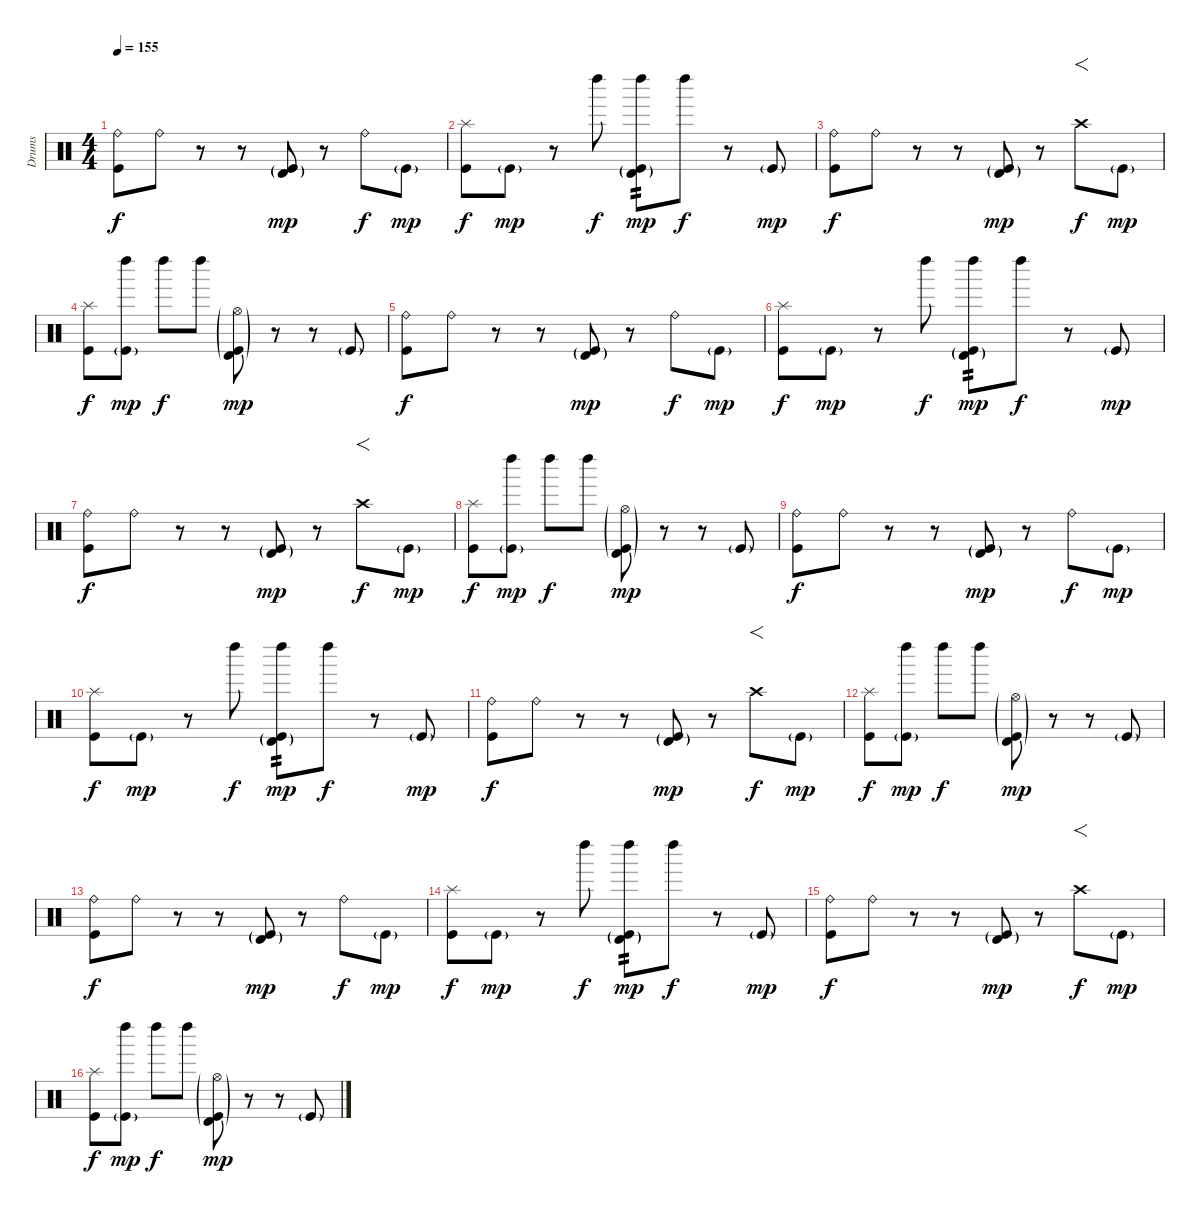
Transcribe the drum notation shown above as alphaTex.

\track ("Drums" "Drums") {instrument percussion}
\staff {score}
\articulation defaults
\ts (4 4)
\tempo 155
\clef neutral
\ks c
("Kick (hit)" "Ride (bell)").8{dy f} "Ride (bell)".8 r.8 r.8 ("Timbale high (hit)"{g} "Kick (hit)"{g}).8{dy mp} r.8 "Ride (bell)".8{dy f} "Kick (hit)"{g}.8{dy mp} |
("Kick (hit)" "Splash (hit)").8{dy f} "Kick (hit)"{g}.8{dy mp} r.8 "Left Maraca (hit)".8{dy f} ("Timbale high (hit)"{g} "Kick (hit)"{g} "Left Maraca (hit)").8{tp 2 dy mp} "Left Maraca (hit)".8{dy f} r.8 "Kick (hit)"{g}.8{dy mp} |
("Kick (hit)" "Ride (bell)").8{dy f} "Ride (bell)".8 r.8 r.8 ("Timbale high (hit)"{g} "Kick (hit)"{g}).8{dy mp} r.8 "Crash high (hit)".8{f dy f} "Kick (hit)"{g}.8{dy mp} |
("Kick (hit)" "Splash (hit)").8{dy f} ("Kick (hit)"{g} "Left Maraca (hit)").8{dy mp} "Left Maraca (hit)".8{dy f} "Left Maraca (hit)".8 ("Timbale high (hit)"{g} "Kick (hit)"{g} "Hi-Hat (open)"{g}).8{dy mp} r.8 r.8 "Kick (hit)"{g}.8 |
("Kick (hit)" "Ride (bell)").8{dy f} "Ride (bell)".8 r.8 r.8 ("Timbale high (hit)"{g} "Kick (hit)"{g}).8{dy mp} r.8 "Ride (bell)".8{dy f} "Kick (hit)"{g}.8{dy mp} |
("Kick (hit)" "Splash (hit)").8{dy f} "Kick (hit)"{g}.8{dy mp} r.8 "Left Maraca (hit)".8{dy f} ("Timbale high (hit)"{g} "Kick (hit)"{g} "Left Maraca (hit)").8{tp 2 dy mp} "Left Maraca (hit)".8{dy f} r.8 "Kick (hit)"{g}.8{dy mp} |
("Kick (hit)" "Ride (bell)").8{dy f} "Ride (bell)".8 r.8 r.8 ("Timbale high (hit)"{g} "Kick (hit)"{g}).8{dy mp} r.8 "Crash high (hit)".8{f dy f} "Kick (hit)"{g}.8{dy mp} |
("Kick (hit)" "Splash (hit)").8{dy f} ("Kick (hit)"{g} "Left Maraca (hit)").8{dy mp} "Left Maraca (hit)".8{dy f} "Left Maraca (hit)".8 ("Timbale high (hit)"{g} "Kick (hit)"{g} "Hi-Hat (open)"{g}).8{dy mp} r.8 r.8 "Kick (hit)"{g}.8 |
("Kick (hit)" "Ride (bell)").8{dy f} "Ride (bell)".8 r.8 r.8 ("Timbale high (hit)"{g} "Kick (hit)"{g}).8{dy mp} r.8 "Ride (bell)".8{dy f} "Kick (hit)"{g}.8{dy mp} |
("Kick (hit)" "Splash (hit)").8{dy f} "Kick (hit)"{g}.8{dy mp} r.8 "Left Maraca (hit)".8{dy f} ("Timbale high (hit)"{g} "Kick (hit)"{g} "Left Maraca (hit)").8{tp 2 dy mp} "Left Maraca (hit)".8{dy f} r.8 "Kick (hit)"{g}.8{dy mp} |
("Kick (hit)" "Ride (bell)").8{dy f} "Ride (bell)".8 r.8 r.8 ("Timbale high (hit)"{g} "Kick (hit)"{g}).8{dy mp} r.8 "Crash high (hit)".8{f dy f} "Kick (hit)"{g}.8{dy mp} |
("Kick (hit)" "Splash (hit)").8{dy f} ("Kick (hit)"{g} "Left Maraca (hit)").8{dy mp} "Left Maraca (hit)".8{dy f} "Left Maraca (hit)".8 ("Timbale high (hit)"{g} "Kick (hit)"{g} "Hi-Hat (open)"{g}).8{dy mp} r.8 r.8 "Kick (hit)"{g}.8 |
("Kick (hit)" "Ride (bell)").8{dy f} "Ride (bell)".8 r.8 r.8 ("Timbale high (hit)"{g} "Kick (hit)"{g}).8{dy mp} r.8 "Ride (bell)".8{dy f} "Kick (hit)"{g}.8{dy mp} |
("Kick (hit)" "Splash (hit)").8{dy f} "Kick (hit)"{g}.8{dy mp} r.8 "Left Maraca (hit)".8{dy f} ("Timbale high (hit)"{g} "Kick (hit)"{g} "Left Maraca (hit)").8{tp 2 dy mp} "Left Maraca (hit)".8{dy f} r.8 "Kick (hit)"{g}.8{dy mp} |
("Kick (hit)" "Ride (bell)").8{dy f} "Ride (bell)".8 r.8 r.8 ("Timbale high (hit)"{g} "Kick (hit)"{g}).8{dy mp} r.8 "Crash high (hit)".8{f dy f} "Kick (hit)"{g}.8{dy mp} |
("Kick (hit)" "Splash (hit)").8{dy f} ("Kick (hit)"{g} "Left Maraca (hit)").8{dy mp} "Left Maraca (hit)".8{dy f} "Left Maraca (hit)".8 ("Timbale high (hit)"{g} "Kick (hit)"{g} "Hi-Hat (open)"{g}).8{dy mp} r.8 r.8 "Kick (hit)"{g}.8
